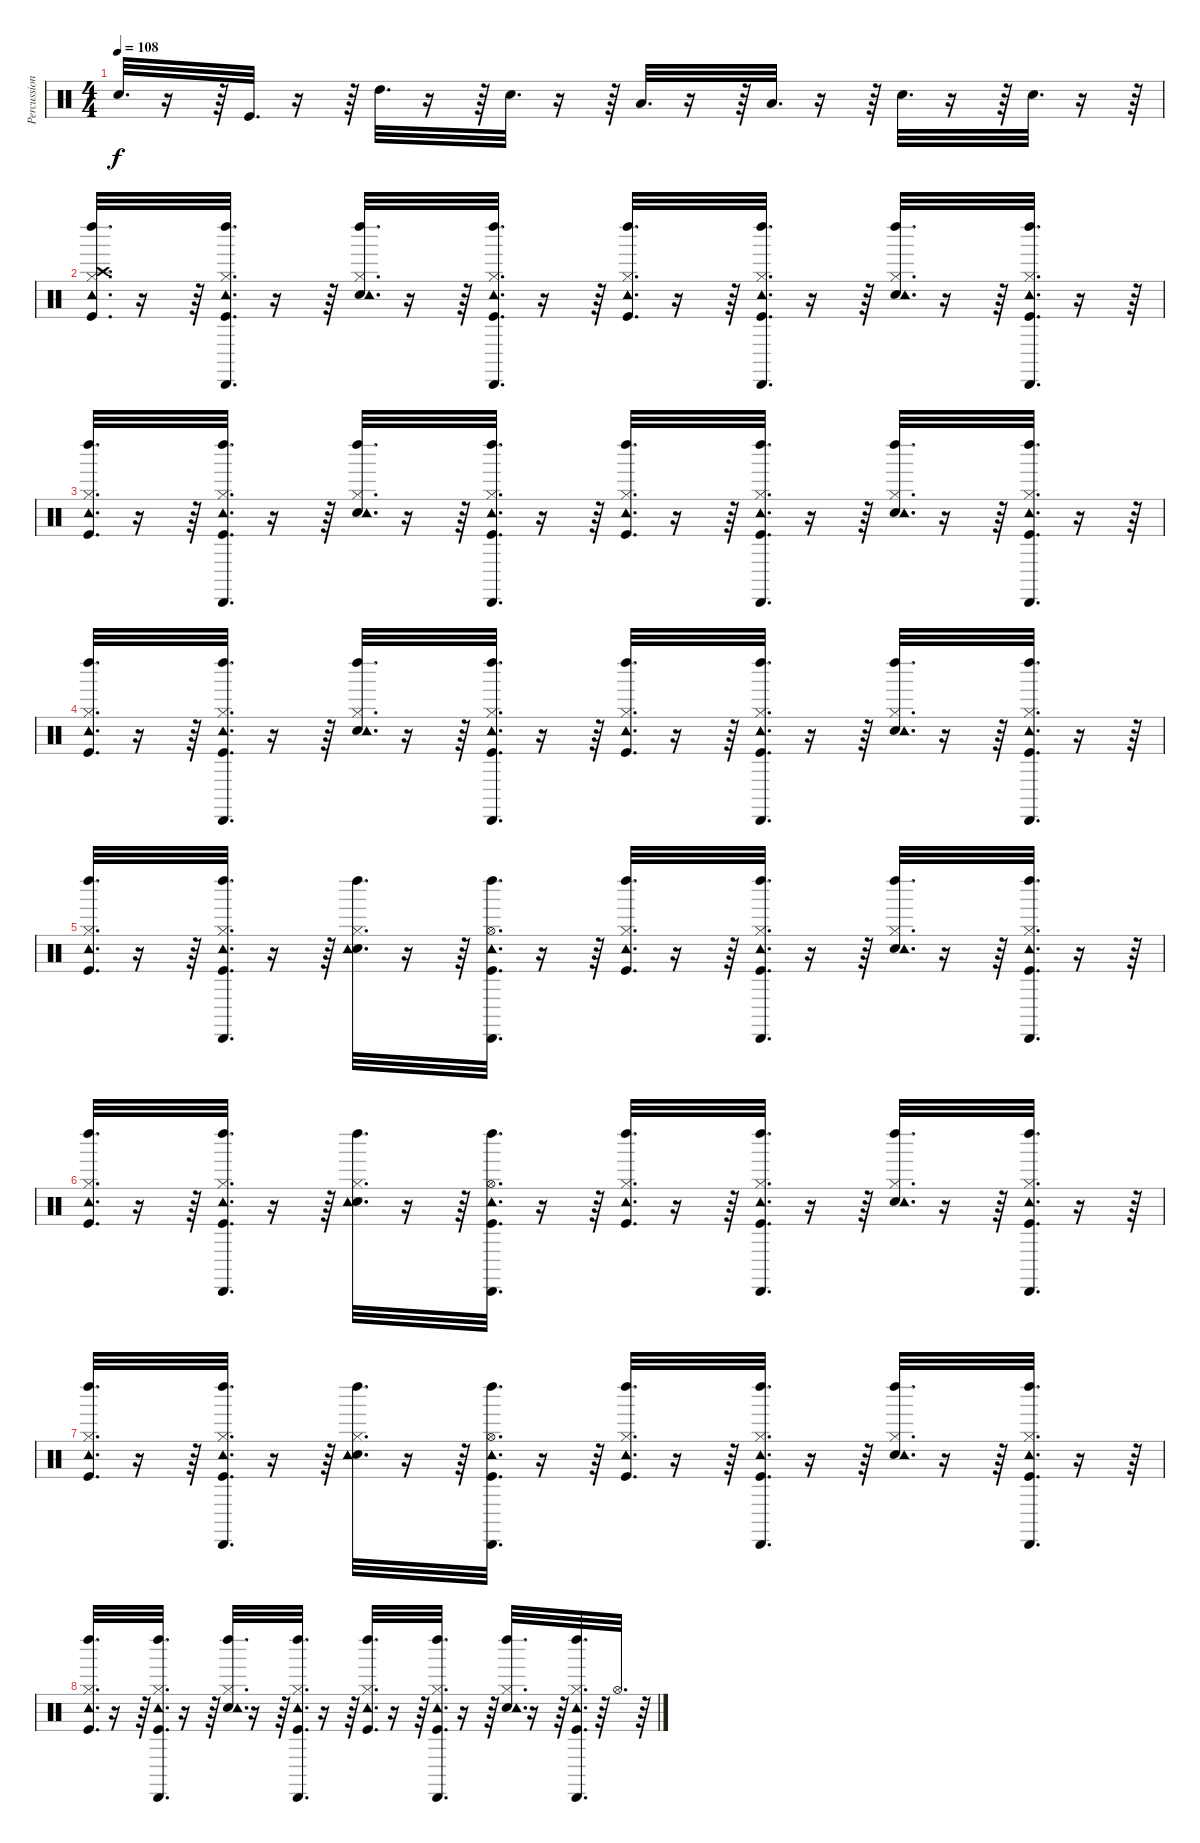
\track ("Percussions" "Percussion") {instrument percussion}
\staff {score}
\articulation defaults
\ts (4 4)
\tempo 108
\clef neutral
\ks c "Snare (hit) 2".32{d dy f}
r.16 r.64 "Kick (hit)".32{d} r.16 r.64 "High Tom (hit)".32{d} r.16 r.64 "Snare (hit) 2".32{d} r.16 r.64 "Low Tom (hit)".32{d} r.16 r.64 "Low Tom (hit)".32{d} r.16 r.64 "Snare (hit) 2".32{d} r.16 r.64 "Snare (hit) 2".32{d} r.16 r.64 |
("Left Maraca (hit)" "Crash high (hit)" "Kick (hit)" "Hi-Hat (closed)" "Tambourine (hit)").32{d} r.16 r.64 ("Cabasa (hit)" "Tambourine (hit)" "Kick (hit)" "Hi-Hat (closed)" "Left Maraca (hit)").32{d} r.16 r.64 ("Left Maraca (hit)" "Snare (hit) 2" "Hi-Hat (closed)" "Tambourine (hit)").32{d} r.16 r.64 ("Cabasa (hit)" "Tambourine (hit)" "Kick (hit)" "Hi-Hat (closed)" "Left Maraca (hit)").32{d} r.16 r.64 ("Left Maraca (hit)" "Kick (hit)" "Hi-Hat (closed)" "Tambourine (hit)").32{d} r.16 r.64 ("Cabasa (hit)" "Tambourine (hit)" "Kick (hit)" "Hi-Hat (closed)" "Left Maraca (hit)").32{d} r.16 r.64 ("Left Maraca (hit)" "Snare (hit) 2" "Hi-Hat (closed)" "Tambourine (hit)").32{d} r.16 r.64 ("Cabasa (hit)" "Tambourine (hit)" "Kick (hit)" "Hi-Hat (closed)" "Left Maraca (hit)").32{d} r.16 r.64 |
("Left Maraca (hit)" "Kick (hit)" "Hi-Hat (closed)" "Tambourine (hit)").32{d} r.16 r.64 ("Cabasa (hit)" "Tambourine (hit)" "Kick (hit)" "Hi-Hat (closed)" "Left Maraca (hit)").32{d} r.16 r.64 ("Left Maraca (hit)" "Snare (hit) 2" "Hi-Hat (closed)" "Tambourine (hit)").32{d} r.16 r.64 ("Cabasa (hit)" "Tambourine (hit)" "Kick (hit)" "Hi-Hat (closed)" "Left Maraca (hit)").32{d} r.16 r.64 ("Left Maraca (hit)" "Kick (hit)" "Hi-Hat (closed)" "Tambourine (hit)").32{d} r.16 r.64 ("Cabasa (hit)" "Tambourine (hit)" "Kick (hit)" "Hi-Hat (closed)" "Left Maraca (hit)").32{d} r.16 r.64 ("Left Maraca (hit)" "Snare (hit) 2" "Hi-Hat (closed)" "Tambourine (hit)").32{d} r.16 r.64 ("Cabasa (hit)" "Tambourine (hit)" "Kick (hit)" "Hi-Hat (closed)" "Left Maraca (hit)").32{d} r.16 r.64 |
("Left Maraca (hit)" "Kick (hit)" "Hi-Hat (closed)" "Tambourine (hit)").32{d} r.16 r.64 ("Cabasa (hit)" "Tambourine (hit)" "Kick (hit)" "Hi-Hat (closed)" "Left Maraca (hit)").32{d} r.16 r.64 ("Left Maraca (hit)" "Snare (hit) 2" "Hi-Hat (closed)" "Tambourine (hit)").32{d} r.16 r.64 ("Cabasa (hit)" "Tambourine (hit)" "Kick (hit)" "Hi-Hat (closed)" "Left Maraca (hit)").32{d} r.16 r.64 ("Left Maraca (hit)" "Kick (hit)" "Hi-Hat (closed)" "Tambourine (hit)").32{d} r.16 r.64 ("Cabasa (hit)" "Tambourine (hit)" "Kick (hit)" "Hi-Hat (closed)" "Left Maraca (hit)").32{d} r.16 r.64 ("Left Maraca (hit)" "Snare (hit) 2" "Hi-Hat (closed)" "Tambourine (hit)").32{d} r.16 r.64 ("Cabasa (hit)" "Tambourine (hit)" "Kick (hit)" "Hi-Hat (closed)" "Left Maraca (hit)").32{d} r.16 r.64 |
("Left Maraca (hit)" "Kick (hit)" "Hi-Hat (closed)" "Tambourine (hit)").32{d} r.16 r.64 ("Cabasa (hit)" "Tambourine (hit)" "Kick (hit)" "Hi-Hat (closed)" "Left Maraca (hit)").32{d} r.16 r.64 ("Left Maraca (hit)" "Snare (hit) 2" "Hi-Hat (closed)" "Tambourine (hit)").32{d} r.16 r.64 ("Cabasa (hit)" "Tambourine (hit)" "Kick (hit)" "Hi-Hat (open)" "Left Maraca (hit)").32{d} r.16 r.64 ("Left Maraca (hit)" "Kick (hit)" "Hi-Hat (closed)" "Tambourine (hit)").32{d} r.16 r.64 ("Cabasa (hit)" "Tambourine (hit)" "Kick (hit)" "Hi-Hat (closed)" "Left Maraca (hit)").32{d} r.16 r.64 ("Left Maraca (hit)" "Snare (hit) 2" "Hi-Hat (closed)" "Tambourine (hit)").32{d} r.16 r.64 ("Cabasa (hit)" "Tambourine (hit)" "Kick (hit)" "Hi-Hat (closed)" "Left Maraca (hit)").32{d} r.16 r.64 |
("Left Maraca (hit)" "Kick (hit)" "Hi-Hat (closed)" "Tambourine (hit)").32{d} r.16 r.64 ("Cabasa (hit)" "Tambourine (hit)" "Kick (hit)" "Hi-Hat (closed)" "Left Maraca (hit)").32{d} r.16 r.64 ("Left Maraca (hit)" "Snare (hit) 2" "Hi-Hat (closed)" "Tambourine (hit)").32{d} r.16 r.64 ("Cabasa (hit)" "Tambourine (hit)" "Kick (hit)" "Hi-Hat (open)" "Left Maraca (hit)").32{d} r.16 r.64 ("Left Maraca (hit)" "Kick (hit)" "Hi-Hat (closed)" "Tambourine (hit)").32{d} r.16 r.64 ("Cabasa (hit)" "Tambourine (hit)" "Kick (hit)" "Hi-Hat (closed)" "Left Maraca (hit)").32{d} r.16 r.64 ("Left Maraca (hit)" "Snare (hit) 2" "Hi-Hat (closed)" "Tambourine (hit)").32{d} r.16 r.64 ("Cabasa (hit)" "Tambourine (hit)" "Kick (hit)" "Hi-Hat (closed)" "Left Maraca (hit)").32{d} r.16 r.64 |
("Left Maraca (hit)" "Kick (hit)" "Hi-Hat (closed)" "Tambourine (hit)").32{d} r.16 r.64 ("Cabasa (hit)" "Tambourine (hit)" "Kick (hit)" "Hi-Hat (closed)" "Left Maraca (hit)").32{d} r.16 r.64 ("Left Maraca (hit)" "Snare (hit) 2" "Hi-Hat (closed)" "Tambourine (hit)").32{d} r.16 r.64 ("Cabasa (hit)" "Tambourine (hit)" "Kick (hit)" "Hi-Hat (open)" "Left Maraca (hit)").32{d} r.16 r.64 ("Left Maraca (hit)" "Kick (hit)" "Hi-Hat (closed)" "Tambourine (hit)").32{d} r.16 r.64 ("Cabasa (hit)" "Tambourine (hit)" "Kick (hit)" "Hi-Hat (closed)" "Left Maraca (hit)").32{d} r.16 r.64 ("Left Maraca (hit)" "Snare (hit) 2" "Hi-Hat (closed)" "Tambourine (hit)").32{d} r.16 r.64 ("Cabasa (hit)" "Tambourine (hit)" "Kick (hit)" "Hi-Hat (closed)" "Left Maraca (hit)").32{d} r.16 r.64 |
("Left Maraca (hit)" "Kick (hit)" "Hi-Hat (closed)" "Tambourine (hit)").32{d} r.16 r.64 ("Cabasa (hit)" "Tambourine (hit)" "Kick (hit)" "Hi-Hat (closed)" "Left Maraca (hit)").32{d} r.16 r.64 ("Left Maraca (hit)" "Snare (hit) 2" "Hi-Hat (closed)" "Tambourine (hit)").32{d} r.16 r.64 ("Cabasa (hit)" "Tambourine (hit)" "Kick (hit)" "Hi-Hat (closed)" "Left Maraca (hit)").32{d} r.16 r.64 ("Left Maraca (hit)" "Kick (hit)" "Hi-Hat (closed)" "Tambourine (hit)").32{d} r.16 r.64 ("Cabasa (hit)" "Tambourine (hit)" "Kick (hit)" "Hi-Hat (closed)" "Left Maraca (hit)").32{d} r.16 r.64 ("Left Maraca (hit)" "Snare (hit) 2" "Hi-Hat (closed)" "Tambourine (hit)").32{d} r.16 r.64 ("Cabasa (hit)" "Tambourine (hit)" "Kick (hit)" "Hi-Hat (closed)" "Left Maraca (hit)").32{d} r.64 "Hi-Hat (open)".32{d} r.64
